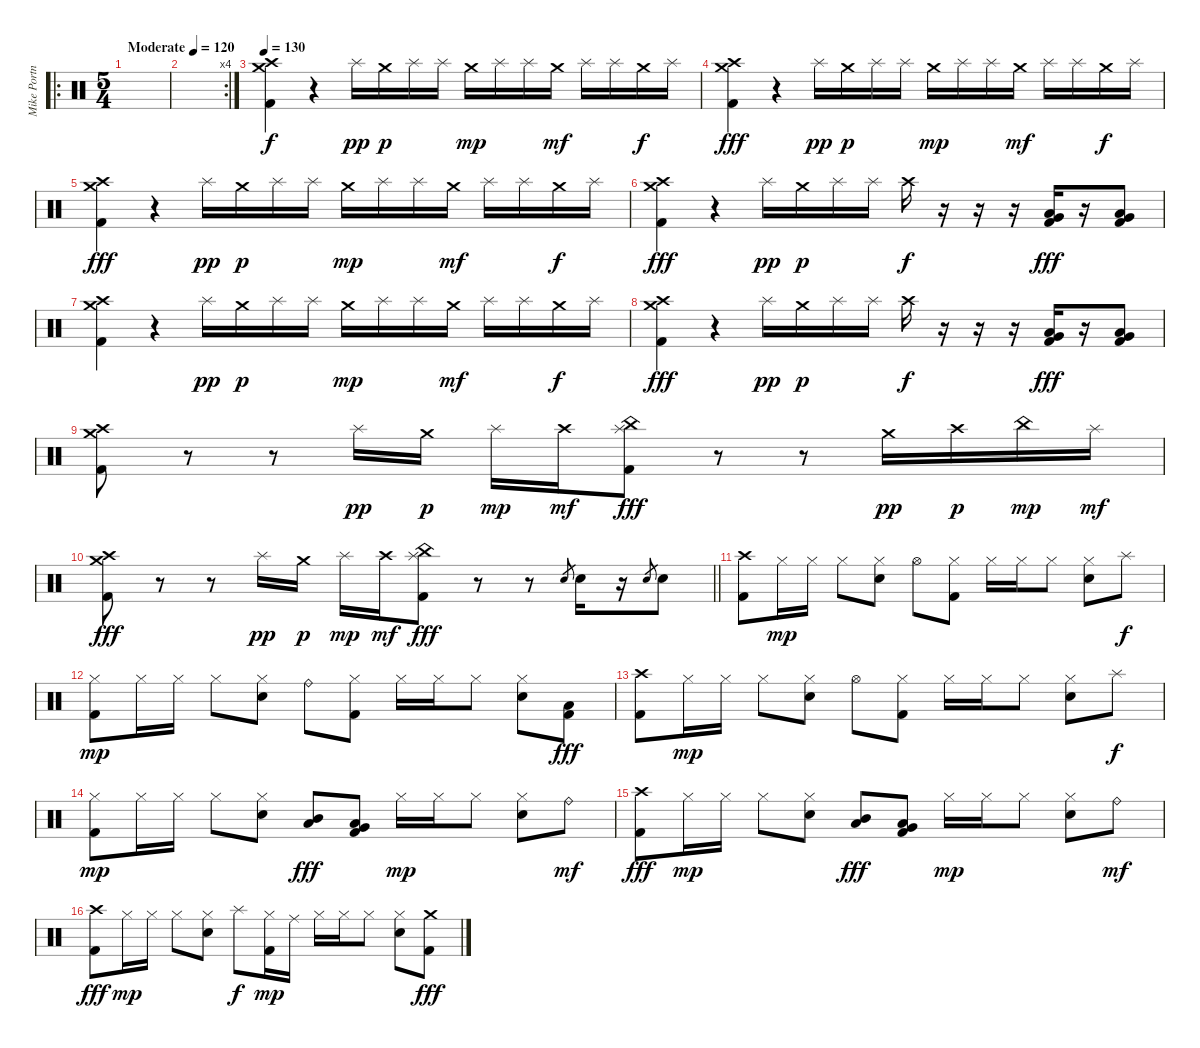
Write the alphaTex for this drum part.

\track ("Mike Portnoy" "Mike Portn") {instrument percussion}
\staff {score}
\articulation defaults
\ro
\ts (5 4)
\tempo (120 "Moderate")
\clef neutral
\ks c
|
\rc 4
|
\tempo 130
("Kick (hit) 2" "Crash medium (hit)" "Crash high (hit)").4 r.4 "Splash (hit)".16{dy pp} "Crash medium (hit)".16{dy p} "Splash (hit)".16 "Splash (hit)".16 "Crash medium (hit)".16{dy mp} "Splash (hit)".16 "Splash (hit)".16 "Crash medium (hit)".16{dy mf} "Splash (hit)".16 "Splash (hit)".16 "Crash medium (hit)".16{dy f} "Splash (hit)".16 |
("Kick (hit) 2" "Crash medium (hit)" "Crash high (hit)").4{dy fff} r.4 "Splash (hit)".16{dy pp} "Crash medium (hit)".16{dy p} "Splash (hit)".16 "Splash (hit)".16 "Crash medium (hit)".16{dy mp} "Splash (hit)".16 "Splash (hit)".16 "Crash medium (hit)".16{dy mf} "Splash (hit)".16 "Splash (hit)".16 "Crash medium (hit)".16{dy f} "Splash (hit)".16 |
("Kick (hit) 2" "Crash medium (hit)" "Crash high (hit)").4{dy fff} r.4 "Splash (hit)".16{dy pp} "Crash medium (hit)".16{dy p} "Splash (hit)".16 "Splash (hit)".16 "Crash medium (hit)".16{dy mp} "Splash (hit)".16 "Splash (hit)".16 "Crash medium (hit)".16{dy mf} "Splash (hit)".16 "Splash (hit)".16 "Crash medium (hit)".16{dy f} "Splash (hit)".16 |
("Kick (hit) 2" "Crash medium (hit)" "Crash high (hit)").4{dy fff} r.4 "Splash (hit)".16{dy pp} "Crash medium (hit)".16{dy p} "Splash (hit)".16 "Splash (hit)".16 "Crash high (hit)".16{dy f} r.16 r.16 r.16 ("Low Floor Tom (hit)" "Very Low Tom (hit)" "Kick (hit) 2").16{dy fff} r.16 ("Low Floor Tom (hit)" "Very Low Tom (hit)" "Kick (hit) 2").8 |
("Kick (hit) 2" "Crash medium (hit)" "Crash high (hit)").4 r.4 "Splash (hit)".16{dy pp} "Crash medium (hit)".16{dy p} "Splash (hit)".16 "Splash (hit)".16 "Crash medium (hit)".16{dy mp} "Splash (hit)".16 "Splash (hit)".16 "Crash medium (hit)".16{dy mf} "Splash (hit)".16 "Splash (hit)".16 "Crash medium (hit)".16{dy f} "Splash (hit)".16 |
("Kick (hit) 2" "Crash medium (hit)" "Crash high (hit)").4{dy fff} r.4 "Splash (hit)".16{dy pp} "Crash medium (hit)".16{dy p} "Splash (hit)".16 "Splash (hit)".16 "Crash high (hit)".16{dy f} r.16 r.16 r.16 ("Low Floor Tom (hit)" "Very Low Tom (hit)" "Kick (hit) 2").16{dy fff} r.16 ("Low Floor Tom (hit)" "Very Low Tom (hit)" "Kick (hit) 2").8 |
("Kick (hit) 2" "Crash medium (hit)" "Crash high (hit)").8 r.8 r.8 "Splash (hit)".16{dy pp} "Crash medium (hit)".16{dy p} "Splash (hit)".16{dy mp} "Crash high (hit)".16{dy mf} ("Kick (hit) 2" "Splash (hit)" "China (hit)").8{dy fff} r.8 r.8 "Crash medium (hit)".16{dy pp} "Crash high (hit)".16{dy p} "China (hit)".16{dy mp} "Splash (hit)".16{dy mf} |
\barLineRight lightlight
("Kick (hit) 2" "Crash medium (hit)" "Crash high (hit)").8{dy fff} r.8 r.8 "Splash (hit)".16{dy pp} "Crash medium (hit)".16{dy p} "Splash (hit)".16{dy mp} "Crash high (hit)".16{dy mf} ("Kick (hit) 2" "Splash (hit)" "China (hit)").8{dy fff} r.8 r.8 "Electric Snare (hit)".8{gr} "Electric Snare (hit)".16 r.16 "Electric Snare (hit)".8{gr} "Electric Snare (hit)".8 |
("Kick (hit) 2" "Crash high (hit)").8 "Hi-Hat (closed)".16{dy mp} "Hi-Hat (closed)".16 "Hi-Hat (closed)".8 ("Electric Snare (hit)" "Hi-Hat (closed)").8 "Hi-Hat (open)".8 ("Kick (hit) 2" "Hi-Hat (closed)").8 "Hi-Hat (closed)".16 "Hi-Hat (closed)".16 "Hi-Hat (closed)".8 ("Electric Snare (hit)" "Hi-Hat (closed)").8 "Splash (hit)".8{dy f} |
("Kick (hit) 2" "Hi-Hat (closed)").8{dy mp} "Hi-Hat (closed)".16 "Hi-Hat (closed)".16 "Hi-Hat (closed)".8 ("Electric Snare (hit)" "Hi-Hat (closed)").8 "Ride (bell)".8 ("Kick (hit) 2" "Hi-Hat (closed)").8 "Hi-Hat (closed)".16 "Hi-Hat (closed)".16 "Hi-Hat (closed)".8 ("Electric Snare (hit)" "Hi-Hat (closed)").8 ("Kick (hit) 2" "Low Tom (hit)").8{dy fff} |
("Kick (hit) 2" "Crash high (hit)").8 "Hi-Hat (closed)".16{dy mp} "Hi-Hat (closed)".16 "Hi-Hat (closed)".8 ("Electric Snare (hit)" "Hi-Hat (closed)").8 "Hi-Hat (open)".8 ("Kick (hit) 2" "Hi-Hat (closed)").8 "Hi-Hat (closed)".16 "Hi-Hat (closed)".16 "Hi-Hat (closed)".8 ("Electric Snare (hit)" "Hi-Hat (closed)").8 "Splash (hit)".8{dy f} |
("Kick (hit) 2" "Hi-Hat (closed)").8{dy mp} "Hi-Hat (closed)".16 "Hi-Hat (closed)".16 "Hi-Hat (closed)".8 ("Electric Snare (hit)" "Hi-Hat (closed)").8 ("Low Tom (hit)" "Mid Tom (hit)").8{dy fff} ("Kick (hit) 2" "Very Low Tom (hit)" "Low Tom (hit)").8 "Hi-Hat (closed)".16{dy mp} "Hi-Hat (closed)".16 "Hi-Hat (closed)".8 ("Electric Snare (hit)" "Hi-Hat (closed)").8 "Ride (bell)".8{dy mf} |
("Kick (hit) 2" "Crash high (hit)").8{dy fff} "Hi-Hat (closed)".16{dy mp} "Hi-Hat (closed)".16 "Hi-Hat (closed)".8 ("Electric Snare (hit)" "Hi-Hat (closed)").8 ("Low Tom (hit)" "Mid Tom (hit)").8{dy fff} ("Kick (hit) 2" "Very Low Tom (hit)" "Low Tom (hit)").8 "Hi-Hat (closed)".16{dy mp} "Hi-Hat (closed)".16 "Hi-Hat (closed)".8 ("Electric Snare (hit)" "Hi-Hat (closed)").8 "Ride (bell)".8{dy mf} |
("Kick (hit) 2" "Crash high (hit)").8{dy fff} "Hi-Hat (closed)".16{dy mp} "Hi-Hat (closed)".16 "Hi-Hat (closed)".8 ("Electric Snare (hit)" "Hi-Hat (closed)").8 "Splash (hit)".8{dy f} ("Kick (hit) 2" "Hi-Hat (closed)").16{dy mp} "Ride (middle)".16 "Hi-Hat (closed)".16 "Hi-Hat (closed)".16 "Hi-Hat (closed)".8 ("Electric Snare (hit)" "Hi-Hat (closed)").8 ("Kick (hit) 2" "Crash medium (hit)").8{dy fff}
